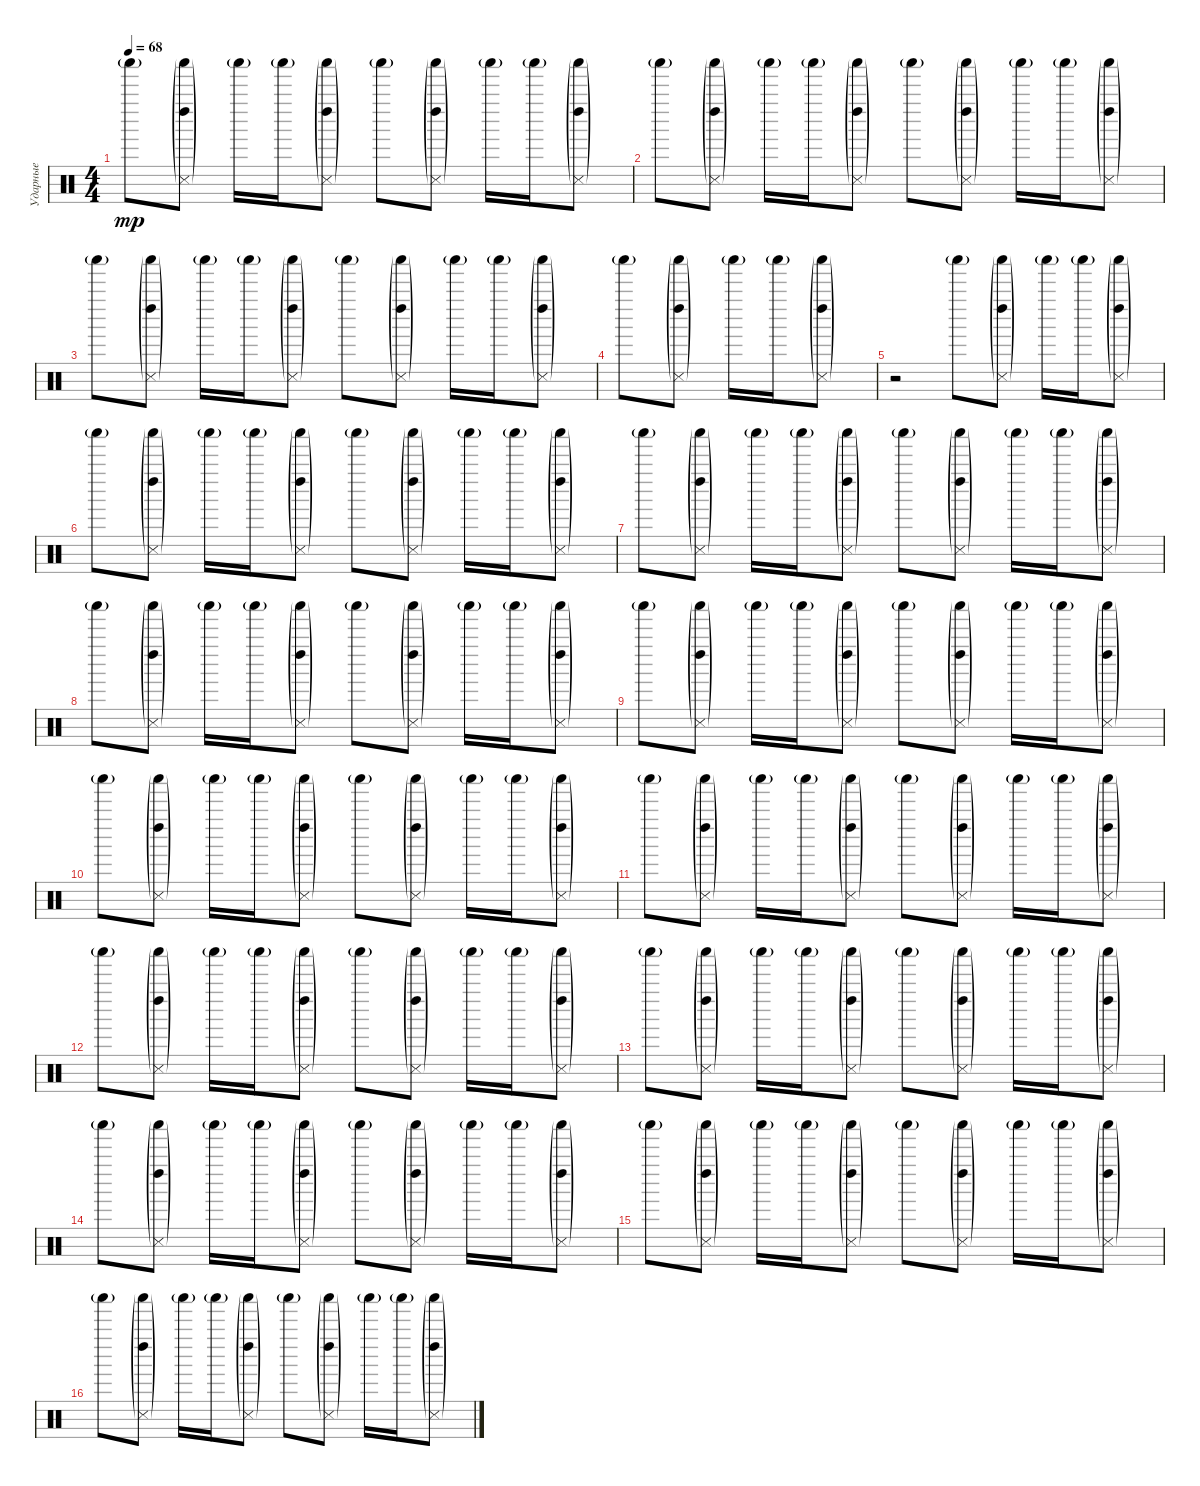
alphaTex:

\track ("Ударные" "Ударные") {instrument percussion}
\staff {score}
\articulation defaults
\ts (4 4)
\tempo 68
\clef neutral
\ks c "Shaker (hit)"{g}.8{dy mp}
("Left Maraca (hit)"{g} "Shaker (hit)"{g} "Snare (side stick) 3"{g}).8 "Shaker (hit)"{g}.16 "Shaker (hit)"{g}.16 ("Left Maraca (hit)"{g} "Shaker (hit)"{g} "Snare (side stick) 3"{g}).8 "Shaker (hit)"{g}.8 ("Left Maraca (hit)"{g} "Shaker (hit)"{g} "Snare (side stick) 3"{g}).8 "Shaker (hit)"{g}.16 "Shaker (hit)"{g}.16 ("Left Maraca (hit)"{g} "Shaker (hit)"{g} "Snare (side stick) 3"{g}).8 |
"Shaker (hit)"{g}.8 ("Left Maraca (hit)"{g} "Shaker (hit)"{g} "Snare (side stick) 3"{g}).8 "Shaker (hit)"{g}.16 "Shaker (hit)"{g}.16 ("Left Maraca (hit)"{g} "Shaker (hit)"{g} "Snare (side stick) 3"{g}).8 "Shaker (hit)"{g}.8 ("Left Maraca (hit)"{g} "Shaker (hit)"{g} "Snare (side stick) 3"{g}).8 "Shaker (hit)"{g}.16 "Shaker (hit)"{g}.16 ("Left Maraca (hit)"{g} "Shaker (hit)"{g} "Snare (side stick) 3"{g}).8 |
"Shaker (hit)"{g}.8 ("Left Maraca (hit)"{g} "Shaker (hit)"{g} "Snare (side stick) 3"{g}).8 "Shaker (hit)"{g}.16 "Shaker (hit)"{g}.16 ("Left Maraca (hit)"{g} "Shaker (hit)"{g} "Snare (side stick) 3"{g}).8 "Shaker (hit)"{g}.8 ("Left Maraca (hit)"{g} "Shaker (hit)"{g} "Snare (side stick) 3"{g}).8 "Shaker (hit)"{g}.16 "Shaker (hit)"{g}.16 ("Left Maraca (hit)"{g} "Shaker (hit)"{g} "Snare (side stick) 3"{g}).8 |
"Shaker (hit)"{g}.8 ("Left Maraca (hit)"{g} "Shaker (hit)"{g} "Snare (side stick) 3"{g}).8 "Shaker (hit)"{g}.16 "Shaker (hit)"{g}.16 ("Left Maraca (hit)"{g} "Shaker (hit)"{g} "Snare (side stick) 3"{g}).8 |
r.2 "Shaker (hit)"{g}.8 ("Left Maraca (hit)"{g} "Shaker (hit)"{g} "Snare (side stick) 3"{g}).8 "Shaker (hit)"{g}.16 "Shaker (hit)"{g}.16 ("Left Maraca (hit)"{g} "Shaker (hit)"{g} "Snare (side stick) 3"{g}).8 |
"Shaker (hit)"{g}.8 ("Left Maraca (hit)"{g} "Shaker (hit)"{g} "Snare (side stick) 3"{g}).8 "Shaker (hit)"{g}.16 "Shaker (hit)"{g}.16 ("Left Maraca (hit)"{g} "Shaker (hit)"{g} "Snare (side stick) 3"{g}).8 "Shaker (hit)"{g}.8 ("Left Maraca (hit)"{g} "Shaker (hit)"{g} "Snare (side stick) 3"{g}).8 "Shaker (hit)"{g}.16 "Shaker (hit)"{g}.16 ("Left Maraca (hit)"{g} "Shaker (hit)"{g} "Snare (side stick) 3"{g}).8 |
"Shaker (hit)"{g}.8 ("Left Maraca (hit)"{g} "Shaker (hit)"{g} "Snare (side stick) 3"{g}).8 "Shaker (hit)"{g}.16 "Shaker (hit)"{g}.16 ("Left Maraca (hit)"{g} "Shaker (hit)"{g} "Snare (side stick) 3"{g}).8 "Shaker (hit)"{g}.8 ("Left Maraca (hit)"{g} "Shaker (hit)"{g} "Snare (side stick) 3"{g}).8 "Shaker (hit)"{g}.16 "Shaker (hit)"{g}.16 ("Left Maraca (hit)"{g} "Shaker (hit)"{g} "Snare (side stick) 3"{g}).8 |
"Shaker (hit)"{g}.8 ("Left Maraca (hit)"{g} "Shaker (hit)"{g} "Snare (side stick) 3"{g}).8 "Shaker (hit)"{g}.16 "Shaker (hit)"{g}.16 ("Left Maraca (hit)"{g} "Shaker (hit)"{g} "Snare (side stick) 3"{g}).8 "Shaker (hit)"{g}.8 ("Left Maraca (hit)"{g} "Shaker (hit)"{g} "Snare (side stick) 3"{g}).8 "Shaker (hit)"{g}.16 "Shaker (hit)"{g}.16 ("Left Maraca (hit)"{g} "Shaker (hit)"{g} "Snare (side stick) 3"{g}).8 |
"Shaker (hit)"{g}.8 ("Left Maraca (hit)"{g} "Shaker (hit)"{g} "Snare (side stick) 3"{g}).8 "Shaker (hit)"{g}.16 "Shaker (hit)"{g}.16 ("Left Maraca (hit)"{g} "Shaker (hit)"{g} "Snare (side stick) 3"{g}).8 "Shaker (hit)"{g}.8 ("Left Maraca (hit)"{g} "Shaker (hit)"{g} "Snare (side stick) 3"{g}).8 "Shaker (hit)"{g}.16 "Shaker (hit)"{g}.16 ("Left Maraca (hit)"{g} "Shaker (hit)"{g} "Snare (side stick) 3"{g}).8 |
"Shaker (hit)"{g}.8 ("Left Maraca (hit)"{g} "Shaker (hit)"{g} "Snare (side stick) 3"{g}).8 "Shaker (hit)"{g}.16 "Shaker (hit)"{g}.16 ("Left Maraca (hit)"{g} "Shaker (hit)"{g} "Snare (side stick) 3"{g}).8 "Shaker (hit)"{g}.8 ("Left Maraca (hit)"{g} "Shaker (hit)"{g} "Snare (side stick) 3"{g}).8 "Shaker (hit)"{g}.16 "Shaker (hit)"{g}.16 ("Left Maraca (hit)"{g} "Shaker (hit)"{g} "Snare (side stick) 3"{g}).8 |
"Shaker (hit)"{g}.8 ("Left Maraca (hit)"{g} "Shaker (hit)"{g} "Snare (side stick) 3"{g}).8 "Shaker (hit)"{g}.16 "Shaker (hit)"{g}.16 ("Left Maraca (hit)"{g} "Shaker (hit)"{g} "Snare (side stick) 3"{g}).8 "Shaker (hit)"{g}.8 ("Left Maraca (hit)"{g} "Shaker (hit)"{g} "Snare (side stick) 3"{g}).8 "Shaker (hit)"{g}.16 "Shaker (hit)"{g}.16 ("Left Maraca (hit)"{g} "Shaker (hit)"{g} "Snare (side stick) 3"{g}).8 |
"Shaker (hit)"{g}.8 ("Left Maraca (hit)"{g} "Shaker (hit)"{g} "Snare (side stick) 3"{g}).8 "Shaker (hit)"{g}.16 "Shaker (hit)"{g}.16 ("Left Maraca (hit)"{g} "Shaker (hit)"{g} "Snare (side stick) 3"{g}).8 "Shaker (hit)"{g}.8 ("Left Maraca (hit)"{g} "Shaker (hit)"{g} "Snare (side stick) 3"{g}).8 "Shaker (hit)"{g}.16 "Shaker (hit)"{g}.16 ("Left Maraca (hit)"{g} "Shaker (hit)"{g} "Snare (side stick) 3"{g}).8 |
"Shaker (hit)"{g}.8 ("Left Maraca (hit)"{g} "Shaker (hit)"{g} "Snare (side stick) 3"{g}).8 "Shaker (hit)"{g}.16 "Shaker (hit)"{g}.16 ("Left Maraca (hit)"{g} "Shaker (hit)"{g} "Snare (side stick) 3"{g}).8 "Shaker (hit)"{g}.8 ("Left Maraca (hit)"{g} "Shaker (hit)"{g} "Snare (side stick) 3"{g}).8 "Shaker (hit)"{g}.16 "Shaker (hit)"{g}.16 ("Left Maraca (hit)"{g} "Shaker (hit)"{g} "Snare (side stick) 3"{g}).8 |
"Shaker (hit)"{g}.8 ("Left Maraca (hit)"{g} "Shaker (hit)"{g} "Snare (side stick) 3"{g}).8 "Shaker (hit)"{g}.16 "Shaker (hit)"{g}.16 ("Left Maraca (hit)"{g} "Shaker (hit)"{g} "Snare (side stick) 3"{g}).8 "Shaker (hit)"{g}.8 ("Left Maraca (hit)"{g} "Shaker (hit)"{g} "Snare (side stick) 3"{g}).8 "Shaker (hit)"{g}.16 "Shaker (hit)"{g}.16 ("Left Maraca (hit)"{g} "Shaker (hit)"{g} "Snare (side stick) 3"{g}).8 |
"Shaker (hit)"{g}.8 ("Left Maraca (hit)"{g} "Shaker (hit)"{g} "Snare (side stick) 3"{g}).8 "Shaker (hit)"{g}.16 "Shaker (hit)"{g}.16 ("Left Maraca (hit)"{g} "Shaker (hit)"{g} "Snare (side stick) 3"{g}).8 "Shaker (hit)"{g}.8 ("Left Maraca (hit)"{g} "Shaker (hit)"{g} "Snare (side stick) 3"{g}).8 "Shaker (hit)"{g}.16 "Shaker (hit)"{g}.16 ("Left Maraca (hit)"{g} "Shaker (hit)"{g} "Snare (side stick) 3"{g}).8 |
"Shaker (hit)"{g}.8 ("Left Maraca (hit)"{g} "Shaker (hit)"{g} "Snare (side stick) 3"{g}).8 "Shaker (hit)"{g}.16 "Shaker (hit)"{g}.16 ("Left Maraca (hit)"{g} "Shaker (hit)"{g} "Snare (side stick) 3"{g}).8 "Shaker (hit)"{g}.8 ("Left Maraca (hit)"{g} "Shaker (hit)"{g} "Snare (side stick) 3"{g}).8 "Shaker (hit)"{g}.16 "Shaker (hit)"{g}.16 ("Left Maraca (hit)"{g} "Shaker (hit)"{g} "Snare (side stick) 3"{g}).8
